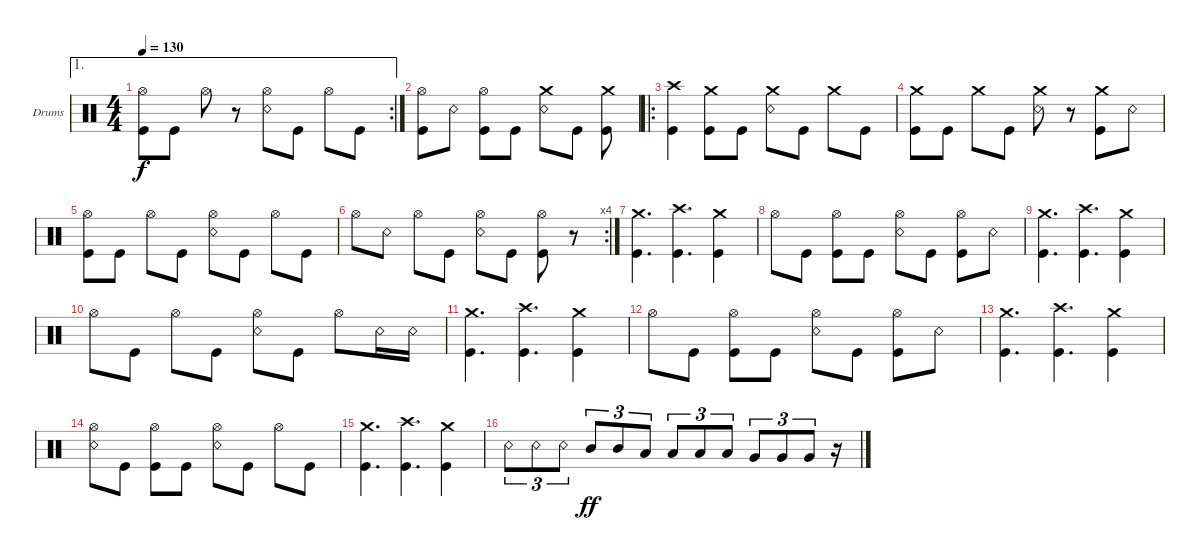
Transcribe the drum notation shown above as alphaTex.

\defaultSystemsLayout 4
\bracketExtendMode groupsimilarinstruments
\firstSystemTrackNameOrientation horizontal
\otherSystemsTrackNameOrientation horizontal
\track ("Drumkit" "Drums") {instrument percussion}
\staff {score}
\articulation defaults
\ae 1
\rc 2
\ts (4 4)
\tempo 130
\clef neutral
\ks c
("Hi-Hat (open)" "Kick (hit)").8{dy f} "Kick (hit)".8 "Hi-Hat (open)".8 r.8 ("Snare (rim shot)" "Hi-Hat (open)").8 "Kick (hit)".8 "Hi-Hat (open)".8 "Kick (hit)".8 |
("Kick (hit)" "Hi-Hat (open)").8 "Snare (rim shot)".8 ("Kick (hit)" "Hi-Hat (open)").8 "Kick (hit)".8 ("Snare (rim shot)" "Crash medium (hit)").8 "Kick (hit)".8 ("Crash medium (hit)" "Kick (hit)").8 |
\ro
\scale
0.365079 ("Kick (hit)" "Crash high (hit)").4 ("Kick (hit)" "Crash medium (hit)").8 "Kick (hit)".8 ("Snare (rim shot)" "Crash medium (hit)").8 "Kick (hit)".8 "Crash medium (hit)".8 "Kick (hit)".8 |
\scale
0.322034 ("Kick (hit)" "Crash medium (hit)").8 "Kick (hit)".8 "Crash medium (hit)".8 "Kick (hit)".8 ("Crash medium (hit)" "Snare (rim shot)").8 r.8 ("Crash medium (hit)" "Kick (hit)").8 "Snare (rim shot)".8 |
\scale
0.322034 ("Kick (hit)" "Hi-Hat (open)").8 "Kick (hit)".8 "Hi-Hat (open)".8 "Kick (hit)".8 ("Snare (rim shot)" "Hi-Hat (open)").8 "Kick (hit)".8 "Hi-Hat (open)".8 "Kick (hit)".8 |
\rc 4
\scale
0.355932 "Hi-Hat (open)".8 "Snare (rim shot)".8 "Hi-Hat (open)".8 "Kick (hit)".8 ("Snare (rim shot)" "Hi-Hat (open)").8 "Kick (hit)".8 ("Kick (hit)" "Hi-Hat (open)").8 r.8 |
\scale
0.333333 ("Kick (hit)" "Crash medium (hit)").4{d} ("Kick (hit)" "Crash high (hit)").4{d} ("Kick (hit)" "Crash medium (hit)").4 |
\scale
0.333333 "Hi-Hat (open)".8 "Kick (hit)".8 ("Kick (hit)" "Hi-Hat (open)").8 "Kick (hit)".8 ("Snare (rim shot)" "Hi-Hat (open)").8 "Kick (hit)".8 ("Kick (hit)" "Hi-Hat (open)").8 "Snare (rim shot)".8 |
\scale
0.333333 ("Kick (hit)" "Crash medium (hit)").4{d} ("Kick (hit)" "Crash high (hit)").4{d} ("Kick (hit)" "Crash medium (hit)").4 |
\scale
0.333333 "Hi-Hat (open)".8 "Kick (hit)".8 "Hi-Hat (open)".8 "Kick (hit)".8 ("Snare (rim shot)" "Hi-Hat (open)").8 "Kick (hit)".8 "Hi-Hat (open)".8 "Snare (rim shot)".16 "Snare (rim shot)".16 |
("Kick (hit)" "Crash medium (hit)").4{d} ("Kick (hit)" "Crash high (hit)").4{d} ("Kick (hit)" "Crash medium (hit)").4 |
"Hi-Hat (open)".8 "Kick (hit)".8 ("Kick (hit)" "Hi-Hat (open)").8 "Kick (hit)".8 ("Snare (rim shot)" "Hi-Hat (open)").8 "Kick (hit)".8 ("Kick (hit)" "Hi-Hat (open)").8 "Snare (rim shot)".8 |
("Kick (hit)" "Crash medium (hit)").4{d} ("Kick (hit)" "Crash high (hit)").4{d} ("Kick (hit)" "Crash medium (hit)").4 |
("Hi-Hat (open)" "Snare (rim shot)").8 "Kick (hit)".8 ("Hi-Hat (open)" "Kick (hit)").8 "Kick (hit)".8 ("Snare (rim shot)" "Hi-Hat (open)").8 "Kick (hit)".8 "Hi-Hat (open)".8 "Kick (hit)".8 |
\scale
0.333333 ("Kick (hit)" "Crash medium (hit)").4{d} ("Kick (hit)" "Crash high (hit)").4{d} ("Kick (hit)" "Crash medium (hit)").4 |
\scale
0.333333 "Snare (rim shot)".8{tu (3 2)} "Snare (rim shot)".8{tu (3 2)} "Snare (rim shot)".8{tu (3 2)} "Mid Tom (hit)".8{tu (3 2) dy ff} "Mid Tom (hit)".8{tu (3 2)} "Low Tom (hit)".8{tu (3 2)} "Low Tom (hit)".8{tu (3 2)} "Low Tom (hit)".8{tu (3 2)} "Low Tom (hit)".8{tu (3 2)} "Very Low Tom (hit)".8{tu (3 2)} "Very Low Tom (hit)".8{tu (3 2)} "Very Low Tom (hit)".8{tu (3 2)} r.16
